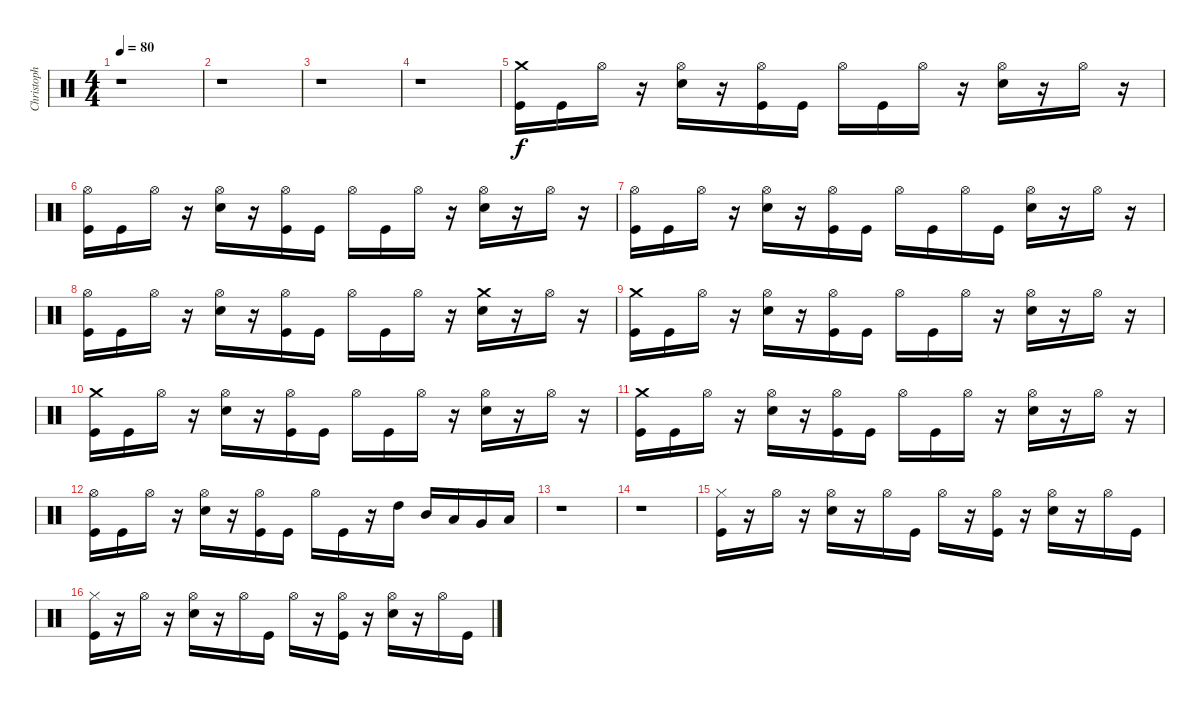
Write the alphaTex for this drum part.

\track ("Christoph DOOM Schneider" "Christoph ") {instrument percussion}
\staff {score}
\articulation defaults
\ts (4 4)
\tempo 80
\clef neutral
\ks c
r.1{dy f} |
r.1 |
r.1 |
r.1 |
("Crash medium (hit)" "Kick (hit)").16 "Kick (hit)".16 "Hi-Hat (open)".16 r.16 ("Electric Snare (hit)" "Hi-Hat (open)").16 r.16 ("Hi-Hat (open)" "Kick (hit)").16 "Kick (hit)".16 "Hi-Hat (open)".16 "Kick (hit)".16 "Hi-Hat (open)".16 r.16 ("Electric Snare (hit)" "Hi-Hat (open)").16 r.16 "Hi-Hat (open)".16 r.16 |
("Hi-Hat (open)" "Kick (hit)").16 "Kick (hit)".16 "Hi-Hat (open)".16 r.16 ("Electric Snare (hit)" "Hi-Hat (open)").16 r.16 ("Hi-Hat (open)" "Kick (hit)").16 "Kick (hit)".16 "Hi-Hat (open)".16 "Kick (hit)".16 "Hi-Hat (open)".16 r.16 ("Electric Snare (hit)" "Hi-Hat (open)").16 r.16 "Hi-Hat (open)".16 r.16 |
("Hi-Hat (open)" "Kick (hit)").16 "Kick (hit)".16 "Hi-Hat (open)".16 r.16 ("Electric Snare (hit)" "Hi-Hat (open)").16 r.16 ("Hi-Hat (open)" "Kick (hit)").16 "Kick (hit)".16 "Hi-Hat (open)".16 "Kick (hit)".16 "Hi-Hat (open)".16 "Kick (hit)".16 ("Electric Snare (hit)" "Hi-Hat (open)").16 r.16 "Hi-Hat (open)".16 r.16 |
("Hi-Hat (open)" "Kick (hit)").16 "Kick (hit)".16 "Hi-Hat (open)".16 r.16 ("Electric Snare (hit)" "Hi-Hat (open)").16 r.16 ("Hi-Hat (open)" "Kick (hit)").16 "Kick (hit)".16 "Hi-Hat (open)".16 "Kick (hit)".16 "Hi-Hat (open)".16 r.16 ("Electric Snare (hit)" "Crash medium (hit)").16 r.16 "Hi-Hat (open)".16 r.16 |
("Crash medium (hit)" "Kick (hit)").16 "Kick (hit)".16 "Hi-Hat (open)".16 r.16 ("Electric Snare (hit)" "Hi-Hat (open)").16 r.16 ("Hi-Hat (open)" "Kick (hit)").16 "Kick (hit)".16 "Hi-Hat (open)".16 "Kick (hit)".16 "Hi-Hat (open)".16 r.16 ("Electric Snare (hit)" "Hi-Hat (open)").16 r.16 "Hi-Hat (open)".16 r.16 |
("Crash medium (hit)" "Kick (hit)").16 "Kick (hit)".16 "Hi-Hat (open)".16 r.16 ("Electric Snare (hit)" "Hi-Hat (open)").16 r.16 ("Hi-Hat (open)" "Kick (hit)").16 "Kick (hit)".16 "Hi-Hat (open)".16 "Kick (hit)".16 "Hi-Hat (open)".16 r.16 ("Electric Snare (hit)" "Hi-Hat (open)").16 r.16 "Hi-Hat (open)".16 r.16 |
("Crash medium (hit)" "Kick (hit)").16 "Kick (hit)".16 "Hi-Hat (open)".16 r.16 ("Electric Snare (hit)" "Hi-Hat (open)").16 r.16 ("Hi-Hat (open)" "Kick (hit)").16 "Kick (hit)".16 "Hi-Hat (open)".16 "Kick (hit)".16 "Hi-Hat (open)".16 r.16 ("Electric Snare (hit)" "Hi-Hat (open)").16 r.16 "Hi-Hat (open)".16 r.16 |
("Hi-Hat (open)" "Kick (hit)").16 "Kick (hit)".16 "Hi-Hat (open)".16 r.16 ("Electric Snare (hit)" "Hi-Hat (open)").16 r.16 ("Hi-Hat (open)" "Kick (hit)").16 "Kick (hit)".16 "Hi-Hat (open)".16 "Kick (hit)".16 r.16 "High Tom (hit)".16 "Mid Tom (hit)".16 "Low Tom (hit)".16 "Very Low Tom (hit)".16 "Low Floor Tom (hit)".16 |
r.1 |
r.1 |
("Hi-Hat (closed)" "Kick (hit)").16 r.16 "Hi-Hat (open)".16 r.16 ("Electric Snare (hit)" "Hi-Hat (open)").16 r.16 "Hi-Hat (open)".16 "Kick (hit)".16 "Hi-Hat (open)".16 r.16 ("Hi-Hat (open)" "Kick (hit)").16 r.16 ("Electric Snare (hit)" "Hi-Hat (open)").16 r.16 "Hi-Hat (open)".16 "Kick (hit)".16 |
("Hi-Hat (closed)" "Kick (hit)").16 r.16 "Hi-Hat (open)".16 r.16 ("Electric Snare (hit)" "Hi-Hat (open)").16 r.16 "Hi-Hat (open)".16 "Kick (hit)".16 "Hi-Hat (open)".16 r.16 ("Hi-Hat (open)" "Kick (hit)").16 r.16 ("Electric Snare (hit)" "Hi-Hat (open)").16 r.16 "Hi-Hat (open)".16 "Kick (hit)".16
